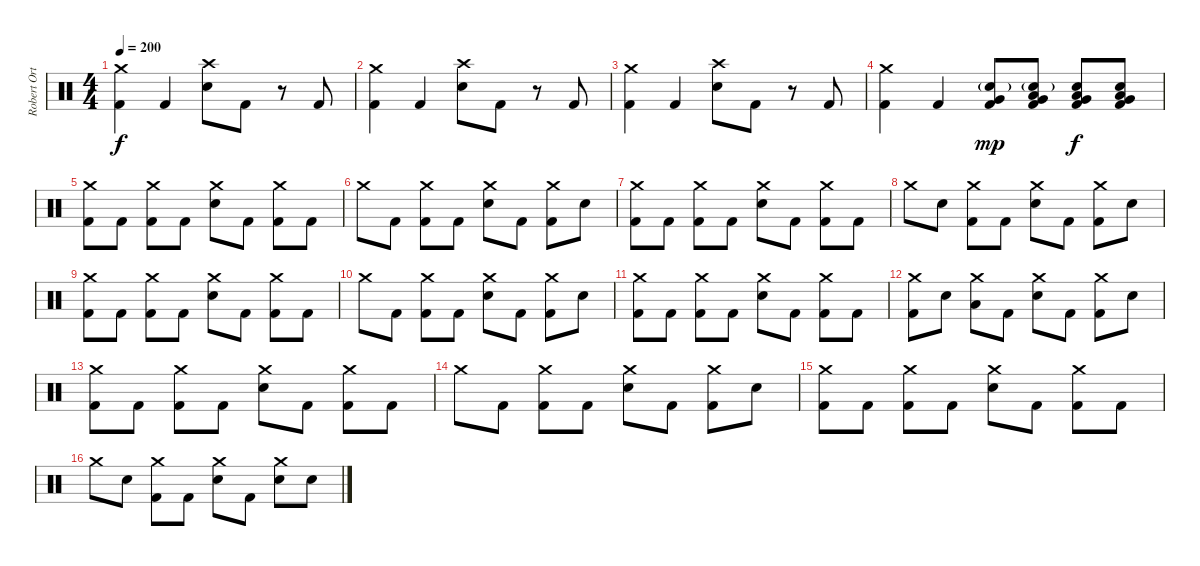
\track ("Robert Ortiz - Drums" "Robert Ort") {instrument percussion}
\staff {score}
\articulation defaults
\ts (4 4)
\tempo 200
\clef neutral
\ks c
("Crash medium (hit)" "Kick (hit) 2").4{dy f} "Kick (hit) 2".4 ("Crash high (hit)" "Electric Snare (hit)").8 "Kick (hit) 2".8 r.8 "Kick (hit) 2".8 |
("Crash medium (hit)" "Kick (hit) 2").4 "Kick (hit) 2".4 ("Crash high (hit)" "Electric Snare (hit)").8 "Kick (hit) 2".8 r.8 "Kick (hit) 2".8 |
("Crash medium (hit)" "Kick (hit) 2").4 "Kick (hit) 2".4 ("Crash high (hit)" "Electric Snare (hit)").8 "Kick (hit) 2".8 r.8 "Kick (hit) 2".8 |
("Crash medium (hit)" "Kick (hit) 2").4 "Kick (hit) 2".4 ("Very Low Tom (hit)" "Electric Snare (hit)"{g} "Kick (hit) 2").8{dy mp} ("Very Low Tom (hit)" "Low Tom (hit)" "Electric Snare (hit)"{g} "Kick (hit) 2").8 ("Very Low Tom (hit)" "Low Tom (hit)" "Electric Snare (hit)" "Kick (hit) 2").8{dy f} ("Very Low Tom (hit)" "Low Tom (hit)" "Electric Snare (hit)" "Kick (hit) 2").8 |
("Crash medium (hit)" "Kick (hit) 2").8 "Kick (hit) 2".8 ("Crash medium (hit)" "Kick (hit) 2").8 "Kick (hit) 2".8 ("Crash medium (hit)" "Electric Snare (hit)").8 "Kick (hit) 2".8 ("Crash medium (hit)" "Kick (hit) 2").8 "Kick (hit) 2".8 |
"Crash medium (hit)".8 "Kick (hit) 2".8 ("Crash medium (hit)" "Kick (hit) 2").8 "Kick (hit) 2".8 ("Crash medium (hit)" "Electric Snare (hit)").8 "Kick (hit) 2".8 ("Crash medium (hit)" "Kick (hit) 2").8 "Electric Snare (hit)".8 |
("Crash medium (hit)" "Kick (hit) 2").8 "Kick (hit) 2".8 ("Crash medium (hit)" "Kick (hit) 2").8 "Kick (hit) 2".8 ("Crash medium (hit)" "Electric Snare (hit)").8 "Kick (hit) 2".8 ("Crash medium (hit)" "Kick (hit) 2").8 "Kick (hit) 2".8 |
"Crash medium (hit)".8 "Electric Snare (hit)".8 ("Crash medium (hit)" "Kick (hit) 2").8 "Kick (hit) 2".8 ("Crash medium (hit)" "Electric Snare (hit)").8 "Kick (hit) 2".8 ("Crash medium (hit)" "Kick (hit) 2").8 "Electric Snare (hit)".8 |
("Crash medium (hit)" "Kick (hit) 2").8 "Kick (hit) 2".8 ("Crash medium (hit)" "Kick (hit) 2").8 "Kick (hit) 2".8 ("Crash medium (hit)" "Electric Snare (hit)").8 "Kick (hit) 2".8 ("Crash medium (hit)" "Kick (hit) 2").8 "Kick (hit) 2".8 |
"Crash medium (hit)".8 "Kick (hit) 2".8 ("Crash medium (hit)" "Kick (hit) 2").8 "Kick (hit) 2".8 ("Crash medium (hit)" "Electric Snare (hit)").8 "Kick (hit) 2".8 ("Crash medium (hit)" "Kick (hit) 2").8 "Electric Snare (hit)".8 |
("Crash medium (hit)" "Kick (hit) 2").8 "Kick (hit) 2".8 ("Crash medium (hit)" "Kick (hit) 2").8 "Kick (hit) 2".8 ("Crash medium (hit)" "Electric Snare (hit)").8 "Kick (hit) 2".8 ("Crash medium (hit)" "Kick (hit) 2").8 "Kick (hit) 2".8 |
("Crash medium (hit)" "Kick (hit) 2").8 "Electric Snare (hit)".8 ("Crash medium (hit)" "Low Tom (hit)").8 "Kick (hit) 2".8 ("Crash medium (hit)" "Electric Snare (hit)").8 "Kick (hit) 2".8 ("Crash medium (hit)" "Kick (hit) 2").8 "Electric Snare (hit)".8 |
("Crash medium (hit)" "Kick (hit) 2").8 "Kick (hit) 2".8 ("Crash medium (hit)" "Kick (hit) 2").8 "Kick (hit) 2".8 ("Crash medium (hit)" "Electric Snare (hit)").8 "Kick (hit) 2".8 ("Crash medium (hit)" "Kick (hit) 2").8 "Kick (hit) 2".8 |
"Crash medium (hit)".8 "Kick (hit) 2".8 ("Crash medium (hit)" "Kick (hit) 2").8 "Kick (hit) 2".8 ("Crash medium (hit)" "Electric Snare (hit)").8 "Kick (hit) 2".8 ("Crash medium (hit)" "Kick (hit) 2").8 "Electric Snare (hit)".8 |
("Crash medium (hit)" "Kick (hit) 2").8 "Kick (hit) 2".8 ("Crash medium (hit)" "Kick (hit) 2").8 "Kick (hit) 2".8 ("Crash medium (hit)" "Electric Snare (hit)").8 "Kick (hit) 2".8 ("Crash medium (hit)" "Kick (hit) 2").8 "Kick (hit) 2".8 |
"Crash medium (hit)".8 "Electric Snare (hit)".8 ("Crash medium (hit)" "Kick (hit) 2").8 "Kick (hit) 2".8 ("Crash medium (hit)" "Electric Snare (hit)").8 "Kick (hit) 2".8 ("Crash medium (hit)" "Electric Snare (hit)").8 "Electric Snare (hit)".8
